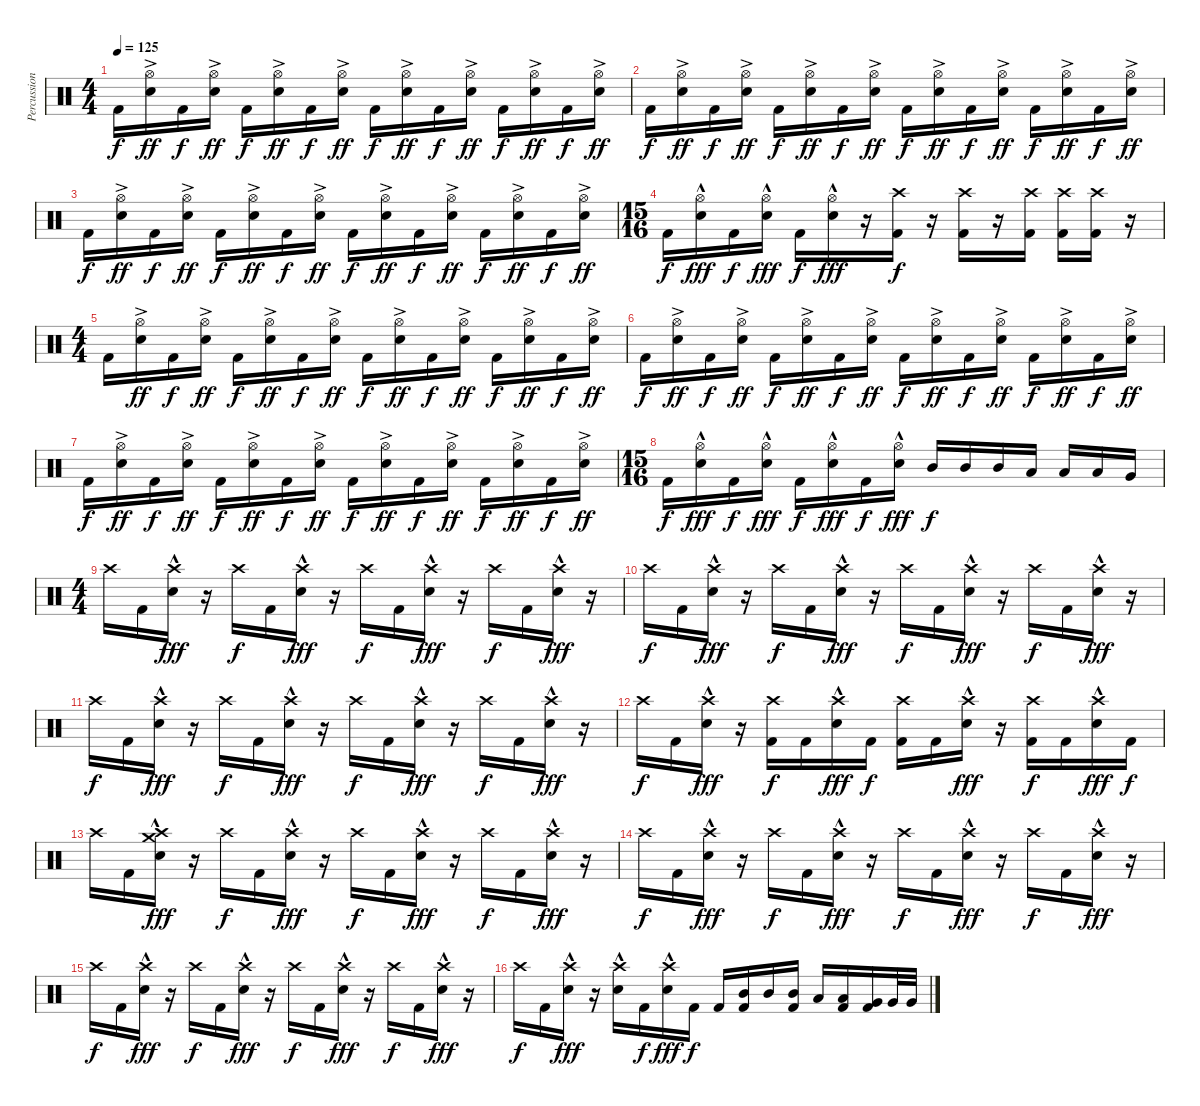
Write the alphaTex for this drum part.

\track ("Percussion" "Percussion") {instrument percussion}
\staff {score}
\articulation defaults
\ts (4 4)
\tempo 125
\clef neutral
\ks c "Kick (hit) 2".16{dy f}
("Hi-Hat (open)" "Electric Snare (hit)"{ac}).16{dy ff} "Kick (hit) 2".16{dy f} ("Hi-Hat (open)" "Electric Snare (hit)"{ac}).16{dy ff} "Kick (hit) 2".16{dy f} ("Hi-Hat (open)" "Electric Snare (hit)"{ac}).16{dy ff} "Kick (hit) 2".16{dy f} ("Hi-Hat (open)" "Electric Snare (hit)"{ac}).16{dy ff} "Kick (hit) 2".16{dy f} ("Hi-Hat (open)" "Electric Snare (hit)"{ac}).16{dy ff} "Kick (hit) 2".16{dy f} ("Hi-Hat (open)" "Electric Snare (hit)"{ac}).16{dy ff} "Kick (hit) 2".16{dy f} ("Hi-Hat (open)" "Electric Snare (hit)"{ac}).16{dy ff} "Kick (hit) 2".16{dy f} ("Hi-Hat (open)" "Electric Snare (hit)"{ac}).16{dy ff} |
"Kick (hit) 2".16{dy f} ("Hi-Hat (open)" "Electric Snare (hit)"{ac}).16{dy ff} "Kick (hit) 2".16{dy f} ("Hi-Hat (open)" "Electric Snare (hit)"{ac}).16{dy ff} "Kick (hit) 2".16{dy f} ("Hi-Hat (open)" "Electric Snare (hit)"{ac}).16{dy ff} "Kick (hit) 2".16{dy f} ("Hi-Hat (open)" "Electric Snare (hit)"{ac}).16{dy ff} "Kick (hit) 2".16{dy f} ("Hi-Hat (open)" "Electric Snare (hit)"{ac}).16{dy ff} "Kick (hit) 2".16{dy f} ("Hi-Hat (open)" "Electric Snare (hit)"{ac}).16{dy ff} "Kick (hit) 2".16{dy f} ("Hi-Hat (open)" "Electric Snare (hit)"{ac}).16{dy ff} "Kick (hit) 2".16{dy f} ("Hi-Hat (open)" "Electric Snare (hit)"{ac}).16{dy ff} |
"Kick (hit) 2".16{dy f} ("Hi-Hat (open)" "Electric Snare (hit)"{ac}).16{dy ff} "Kick (hit) 2".16{dy f} ("Hi-Hat (open)" "Electric Snare (hit)"{ac}).16{dy ff} "Kick (hit) 2".16{dy f} ("Hi-Hat (open)" "Electric Snare (hit)"{ac}).16{dy ff} "Kick (hit) 2".16{dy f} ("Hi-Hat (open)" "Electric Snare (hit)"{ac}).16{dy ff} "Kick (hit) 2".16{dy f} ("Hi-Hat (open)" "Electric Snare (hit)"{ac}).16{dy ff} "Kick (hit) 2".16{dy f} ("Hi-Hat (open)" "Electric Snare (hit)"{ac}).16{dy ff} "Kick (hit) 2".16{dy f} ("Hi-Hat (open)" "Electric Snare (hit)"{ac}).16{dy ff} "Kick (hit) 2".16{dy f} ("Hi-Hat (open)" "Electric Snare (hit)"{ac}).16{dy ff} |
\ts (15 16)
"Kick (hit) 2".16{dy f} ("Hi-Hat (open)" "Electric Snare (hit)"{hac}).16{dy fff} "Kick (hit) 2".16{dy f} ("Hi-Hat (open)" "Electric Snare (hit)"{hac}).16{dy fff} "Kick (hit) 2".16{dy f} ("Hi-Hat (open)" "Electric Snare (hit)"{hac}).16{dy fff} r.16 ("Crash high (hit)" "Kick (hit) 2").16{dy f} r.16 ("Crash high (hit)" "Kick (hit) 2").16 r.16 ("Crash high (hit)" "Kick (hit) 2").16 ("Crash high (hit)" "Kick (hit) 2").16 ("Crash high (hit)" "Kick (hit) 2").16 r.16 |
\ts (4 4)
"Kick (hit) 2".16 ("Hi-Hat (open)" "Electric Snare (hit)"{ac}).16{dy ff} "Kick (hit) 2".16{dy f} ("Hi-Hat (open)" "Electric Snare (hit)"{ac}).16{dy ff} "Kick (hit) 2".16{dy f} ("Hi-Hat (open)" "Electric Snare (hit)"{ac}).16{dy ff} "Kick (hit) 2".16{dy f} ("Hi-Hat (open)" "Electric Snare (hit)"{ac}).16{dy ff} "Kick (hit) 2".16{dy f} ("Hi-Hat (open)" "Electric Snare (hit)"{ac}).16{dy ff} "Kick (hit) 2".16{dy f} ("Hi-Hat (open)" "Electric Snare (hit)"{ac}).16{dy ff} "Kick (hit) 2".16{dy f} ("Hi-Hat (open)" "Electric Snare (hit)"{ac}).16{dy ff} "Kick (hit) 2".16{dy f} ("Hi-Hat (open)" "Electric Snare (hit)"{ac}).16{dy ff} |
"Kick (hit) 2".16{dy f} ("Hi-Hat (open)" "Electric Snare (hit)"{ac}).16{dy ff} "Kick (hit) 2".16{dy f} ("Hi-Hat (open)" "Electric Snare (hit)"{ac}).16{dy ff} "Kick (hit) 2".16{dy f} ("Hi-Hat (open)" "Electric Snare (hit)"{ac}).16{dy ff} "Kick (hit) 2".16{dy f} ("Hi-Hat (open)" "Electric Snare (hit)"{ac}).16{dy ff} "Kick (hit) 2".16{dy f} ("Hi-Hat (open)" "Electric Snare (hit)"{ac}).16{dy ff} "Kick (hit) 2".16{dy f} ("Hi-Hat (open)" "Electric Snare (hit)"{ac}).16{dy ff} "Kick (hit) 2".16{dy f} ("Hi-Hat (open)" "Electric Snare (hit)"{ac}).16{dy ff} "Kick (hit) 2".16{dy f} ("Hi-Hat (open)" "Electric Snare (hit)"{ac}).16{dy ff} |
"Kick (hit) 2".16{dy f} ("Hi-Hat (open)" "Electric Snare (hit)"{ac}).16{dy ff} "Kick (hit) 2".16{dy f} ("Hi-Hat (open)" "Electric Snare (hit)"{ac}).16{dy ff} "Kick (hit) 2".16{dy f} ("Hi-Hat (open)" "Electric Snare (hit)"{ac}).16{dy ff} "Kick (hit) 2".16{dy f} ("Hi-Hat (open)" "Electric Snare (hit)"{ac}).16{dy ff} "Kick (hit) 2".16{dy f} ("Hi-Hat (open)" "Electric Snare (hit)"{ac}).16{dy ff} "Kick (hit) 2".16{dy f} ("Hi-Hat (open)" "Electric Snare (hit)"{ac}).16{dy ff} "Kick (hit) 2".16{dy f} ("Hi-Hat (open)" "Electric Snare (hit)"{ac}).16{dy ff} "Kick (hit) 2".16{dy f} ("Hi-Hat (open)" "Electric Snare (hit)"{ac}).16{dy ff} |
\ts (15 16)
"Kick (hit) 2".16{dy f} ("Hi-Hat (open)" "Electric Snare (hit)"{hac}).16{dy fff} "Kick (hit) 2".16{dy f} ("Hi-Hat (open)" "Electric Snare (hit)"{hac}).16{dy fff} "Kick (hit) 2".16{dy f} ("Hi-Hat (open)" "Electric Snare (hit)"{hac}).16{dy fff} "Kick (hit) 2".16{dy f} ("Hi-Hat (open)" "Electric Snare (hit)"{hac}).16{dy fff} "Mid Tom (hit)".16{dy f} "Mid Tom (hit)".16 "Mid Tom (hit)".16 "Low Tom (hit)".16 "Low Tom (hit)".16 "Low Tom (hit)".16 "Very Low Tom (hit)".16 |
\ts (4 4)
"Crash high (hit)".16 "Kick (hit) 2".16 ("Crash high (hit)" "Electric Snare (hit)"{hac}).16{dy fff} r.16 "Crash high (hit)".16{dy f} "Kick (hit) 2".16 ("Crash high (hit)" "Electric Snare (hit)"{hac}).16{dy fff} r.16 "Crash high (hit)".16{dy f} "Kick (hit) 2".16 ("Crash high (hit)" "Electric Snare (hit)"{hac}).16{dy fff} r.16 "Crash high (hit)".16{dy f} "Kick (hit) 2".16 ("Crash high (hit)" "Electric Snare (hit)"{hac}).16{dy fff} r.16 |
"Crash high (hit)".16{dy f} "Kick (hit) 2".16 ("Crash high (hit)" "Electric Snare (hit)"{hac}).16{dy fff} r.16 "Crash high (hit)".16{dy f} "Kick (hit) 2".16 ("Crash high (hit)" "Electric Snare (hit)"{hac}).16{dy fff} r.16 "Crash high (hit)".16{dy f} "Kick (hit) 2".16 ("Crash high (hit)" "Electric Snare (hit)"{hac}).16{dy fff} r.16 "Crash high (hit)".16{dy f} "Kick (hit) 2".16 ("Crash high (hit)" "Electric Snare (hit)"{hac}).16{dy fff} r.16 |
"Crash high (hit)".16{dy f} "Kick (hit) 2".16 ("Crash high (hit)" "Electric Snare (hit)"{hac}).16{dy fff} r.16 "Crash high (hit)".16{dy f} "Kick (hit) 2".16 ("Crash high (hit)" "Electric Snare (hit)"{hac}).16{dy fff} r.16 "Crash high (hit)".16{dy f} "Kick (hit) 2".16 ("Crash high (hit)" "Electric Snare (hit)"{hac}).16{dy fff} r.16 "Crash high (hit)".16{dy f} "Kick (hit) 2".16 ("Crash high (hit)" "Electric Snare (hit)"{hac}).16{dy fff} r.16 |
"Crash high (hit)".16{dy f} "Kick (hit) 2".16 ("Crash high (hit)" "Electric Snare (hit)"{hac}).16{dy fff} r.16 ("Crash high (hit)" "Kick (hit) 2").16{dy f} "Kick (hit) 2".16 ("Crash high (hit)" "Electric Snare (hit)"{hac}).16{dy fff} "Kick (hit) 2".16{dy f} ("Crash high (hit)" "Kick (hit) 2").16 "Kick (hit) 2".16 ("Crash high (hit)" "Electric Snare (hit)"{hac}).16{dy fff} r.16 ("Crash high (hit)" "Kick (hit) 2").16{dy f} "Kick (hit) 2".16 ("Crash high (hit)" "Electric Snare (hit)"{hac}).16{dy fff} "Kick (hit) 2".16{dy f} |
"Crash high (hit)".16 "Kick (hit) 2".16 ("Crash medium (hit)" "Crash high (hit)" "Electric Snare (hit)"{hac}).16{dy fff} r.16 "Crash high (hit)".16{dy f} "Kick (hit) 2".16 ("Crash high (hit)" "Electric Snare (hit)"{hac}).16{dy fff} r.16 "Crash high (hit)".16{dy f} "Kick (hit) 2".16 ("Crash high (hit)" "Electric Snare (hit)"{hac}).16{dy fff} r.16 "Crash high (hit)".16{dy f} "Kick (hit) 2".16 ("Crash high (hit)" "Electric Snare (hit)"{hac}).16{dy fff} r.16 |
"Crash high (hit)".16{dy f} "Kick (hit) 2".16 ("Crash high (hit)" "Electric Snare (hit)"{hac}).16{dy fff} r.16 "Crash high (hit)".16{dy f} "Kick (hit) 2".16 ("Crash high (hit)" "Electric Snare (hit)"{hac}).16{dy fff} r.16 "Crash high (hit)".16{dy f} "Kick (hit) 2".16 ("Crash high (hit)" "Electric Snare (hit)"{hac}).16{dy fff} r.16 "Crash high (hit)".16{dy f} "Kick (hit) 2".16 ("Crash high (hit)" "Electric Snare (hit)"{hac}).16{dy fff} r.16 |
"Crash high (hit)".16{dy f} "Kick (hit) 2".16 ("Crash high (hit)" "Electric Snare (hit)"{hac}).16{dy fff} r.16 "Crash high (hit)".16{dy f} "Kick (hit) 2".16 ("Crash high (hit)" "Electric Snare (hit)"{hac}).16{dy fff} r.16 "Crash high (hit)".16{dy f} "Kick (hit) 2".16 ("Crash high (hit)" "Electric Snare (hit)"{hac}).16{dy fff} r.16 "Crash high (hit)".16{dy f} "Kick (hit) 2".16 ("Crash high (hit)" "Electric Snare (hit)"{hac}).16{dy fff} r.16 |
"Crash high (hit)".16{dy f} "Kick (hit) 2".16 ("Crash high (hit)" "Electric Snare (hit)"{hac}).16{dy fff} r.16 ("Crash high (hit)" "Electric Snare (hit)"{hac}).16 "Kick (hit) 2".16{dy f} ("Crash high (hit)" "Electric Snare (hit)"{hac}).16{dy fff} "Kick (hit) 2".16{dy f} "Kick (hit) 2".16 ("Mid Tom (hit)" "Kick (hit) 2").16 "Mid Tom (hit)".16 ("Mid Tom (hit)" "Kick (hit) 2").16 "Low Tom (hit)".16 ("Low Tom (hit)" "Kick (hit) 2").16 ("Very Low Tom (hit)" "Kick (hit) 2").16 "Very Low Tom (hit)".32 "Very Low Tom (hit)".32
